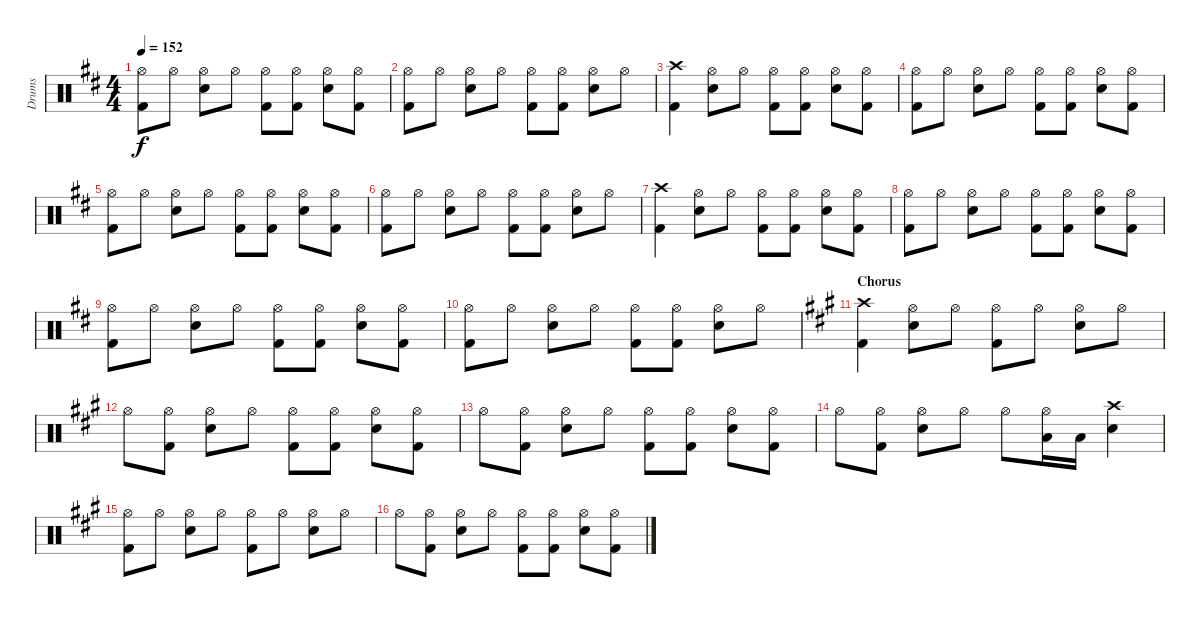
\track ("Drums" "Drums") {instrument percussion}
\staff {score}
\articulation defaults
\ts (4 4)
\tempo 152
\clef neutral
\ks bminor
("Kick (hit) 2" "Hi-Hat (open)").8{dy f} "Hi-Hat (open)".8 ("Snare (hit) 2" "Hi-Hat (open)").8 "Hi-Hat (open)".8 ("Kick (hit) 2" "Hi-Hat (open)").8 ("Kick (hit) 2" "Hi-Hat (open)").8 ("Snare (hit) 2" "Hi-Hat (open)").8 ("Kick (hit) 2" "Hi-Hat (open)").8 |
("Kick (hit) 2" "Hi-Hat (open)").8 "Hi-Hat (open)".8 ("Snare (hit) 2" "Hi-Hat (open)").8 "Hi-Hat (open)".8 ("Kick (hit) 2" "Hi-Hat (open)").8 ("Kick (hit) 2" "Hi-Hat (open)").8 ("Snare (hit) 2" "Hi-Hat (open)").8 "Hi-Hat (open)".8 |
("Kick (hit) 2" "Crash high (hit)").4 ("Snare (hit) 2" "Hi-Hat (open)").8 "Hi-Hat (open)".8 ("Kick (hit) 2" "Hi-Hat (open)").8 ("Kick (hit) 2" "Hi-Hat (open)").8 ("Snare (hit) 2" "Hi-Hat (open)").8 ("Kick (hit) 2" "Hi-Hat (open)").8 |
("Kick (hit) 2" "Hi-Hat (open)").8 "Hi-Hat (open)".8 ("Snare (hit) 2" "Hi-Hat (open)").8 "Hi-Hat (open)".8 ("Kick (hit) 2" "Hi-Hat (open)").8 ("Kick (hit) 2" "Hi-Hat (open)").8 ("Snare (hit) 2" "Hi-Hat (open)").8 ("Kick (hit) 2" "Hi-Hat (open)").8 |
("Kick (hit) 2" "Hi-Hat (open)").8 "Hi-Hat (open)".8 ("Snare (hit) 2" "Hi-Hat (open)").8 "Hi-Hat (open)".8 ("Kick (hit) 2" "Hi-Hat (open)").8 ("Kick (hit) 2" "Hi-Hat (open)").8 ("Snare (hit) 2" "Hi-Hat (open)").8 ("Kick (hit) 2" "Hi-Hat (open)").8 |
("Kick (hit) 2" "Hi-Hat (open)").8 "Hi-Hat (open)".8 ("Snare (hit) 2" "Hi-Hat (open)").8 "Hi-Hat (open)".8 ("Kick (hit) 2" "Hi-Hat (open)").8 ("Kick (hit) 2" "Hi-Hat (open)").8 ("Snare (hit) 2" "Hi-Hat (open)").8 "Hi-Hat (open)".8 |
("Kick (hit) 2" "Crash high (hit)").4 ("Snare (hit) 2" "Hi-Hat (open)").8 "Hi-Hat (open)".8 ("Kick (hit) 2" "Hi-Hat (open)").8 ("Kick (hit) 2" "Hi-Hat (open)").8 ("Snare (hit) 2" "Hi-Hat (open)").8 ("Kick (hit) 2" "Hi-Hat (open)").8 |
("Kick (hit) 2" "Hi-Hat (open)").8 "Hi-Hat (open)".8 ("Snare (hit) 2" "Hi-Hat (open)").8 "Hi-Hat (open)".8 ("Kick (hit) 2" "Hi-Hat (open)").8 ("Kick (hit) 2" "Hi-Hat (open)").8 ("Snare (hit) 2" "Hi-Hat (open)").8 ("Kick (hit) 2" "Hi-Hat (open)").8 |
("Kick (hit) 2" "Hi-Hat (open)").8 "Hi-Hat (open)".8 ("Snare (hit) 2" "Hi-Hat (open)").8 "Hi-Hat (open)".8 ("Kick (hit) 2" "Hi-Hat (open)").8 ("Kick (hit) 2" "Hi-Hat (open)").8 ("Snare (hit) 2" "Hi-Hat (open)").8 ("Kick (hit) 2" "Hi-Hat (open)").8 |
("Kick (hit) 2" "Hi-Hat (open)").8 "Hi-Hat (open)".8 ("Snare (hit) 2" "Hi-Hat (open)").8 "Hi-Hat (open)".8 ("Kick (hit) 2" "Hi-Hat (open)").8 ("Kick (hit) 2" "Hi-Hat (open)").8 ("Snare (hit) 2" "Hi-Hat (open)").8 "Hi-Hat (open)".8 |
\section ("" "Chorus")
\ks f#minor
("Kick (hit) 2" "Crash high (hit)").4 ("Snare (hit) 2" "Hi-Hat (open)").8 "Hi-Hat (open)".8 ("Kick (hit) 2" "Hi-Hat (open)").8 "Hi-Hat (open)".8 ("Snare (hit) 2" "Hi-Hat (open)").8 "Hi-Hat (open)".8 |
"Hi-Hat (open)".8 ("Kick (hit) 2" "Hi-Hat (open)").8 ("Snare (hit) 2" "Hi-Hat (open)").8 "Hi-Hat (open)".8 ("Kick (hit) 2" "Hi-Hat (open)").8 ("Kick (hit) 2" "Hi-Hat (open)").8 ("Snare (hit) 2" "Hi-Hat (open)").8 ("Kick (hit) 2" "Hi-Hat (open)").8 |
"Hi-Hat (open)".8 ("Kick (hit) 2" "Hi-Hat (open)").8 ("Snare (hit) 2" "Hi-Hat (open)").8 "Hi-Hat (open)".8 ("Kick (hit) 2" "Hi-Hat (open)").8 ("Kick (hit) 2" "Hi-Hat (open)").8 ("Snare (hit) 2" "Hi-Hat (open)").8 ("Kick (hit) 2" "Hi-Hat (open)").8 |
"Hi-Hat (open)".8 ("Kick (hit) 2" "Hi-Hat (open)").8 ("Snare (hit) 2" "Hi-Hat (open)").8 "Hi-Hat (open)".8 "Hi-Hat (open)".8 ("Hi-Hat (open)" "Low Tom (hit)").16 "Low Tom (hit)".16 ("Snare (hit) 2" "Crash high (hit)").4 |
("Kick (hit) 2" "Hi-Hat (open)").8 "Hi-Hat (open)".8 ("Snare (hit) 2" "Hi-Hat (open)").8 "Hi-Hat (open)".8 ("Kick (hit) 2" "Hi-Hat (open)").8 "Hi-Hat (open)".8 ("Snare (hit) 2" "Hi-Hat (open)").8 "Hi-Hat (open)".8 |
"Hi-Hat (open)".8 ("Kick (hit) 2" "Hi-Hat (open)").8 ("Snare (hit) 2" "Hi-Hat (open)").8 "Hi-Hat (open)".8 ("Kick (hit) 2" "Hi-Hat (open)").8 ("Kick (hit) 2" "Hi-Hat (open)").8 ("Snare (hit) 2" "Hi-Hat (open)").8 ("Kick (hit) 2" "Hi-Hat (open)").8
